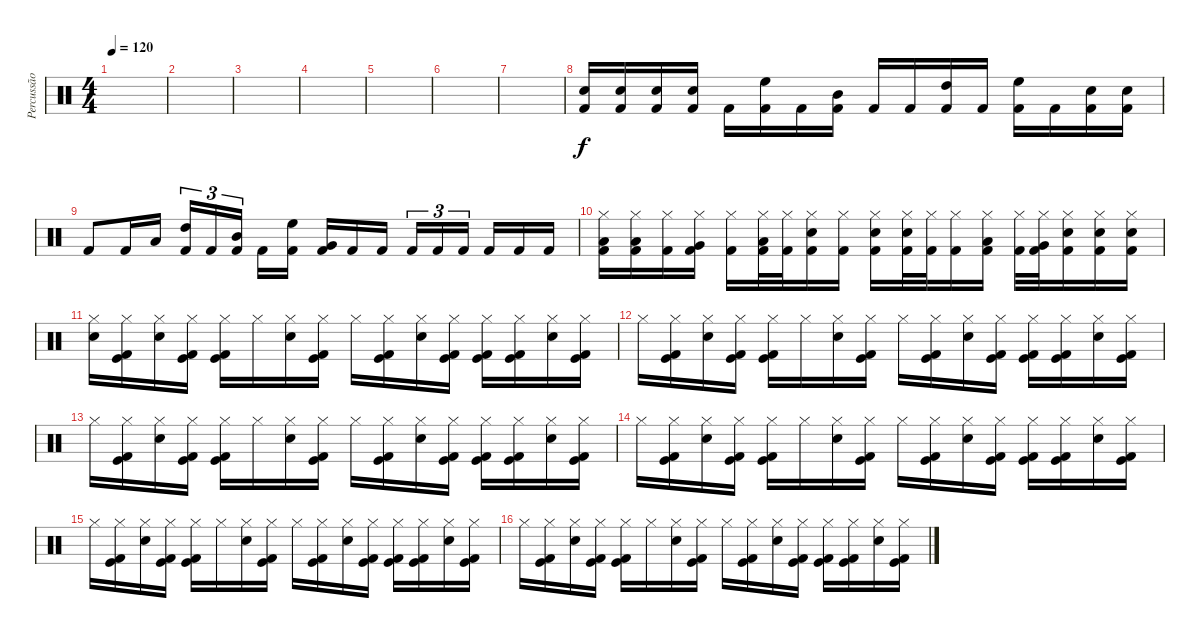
\track ("Percussão" "Percussão") {instrument percussion}
\staff {score}
\articulation defaults
\ts (4 4)
\tempo 120
\clef neutral
\ks c
|
|
|
|
|
|
|
("Electric Snare (hit)" "Kick (hit) 2").16 ("Electric Snare (hit)" "Kick (hit) 2").16 ("Electric Snare (hit)" "Kick (hit) 2").16 ("Electric Snare (hit)" "Kick (hit) 2").16 "Kick (hit) 2".16 ("High Floor Tom (hit)" "Kick (hit) 2").16 "Kick (hit) 2".16 ("Mid Tom (hit)" "Kick (hit) 2").16 "Kick (hit) 2".16 "Kick (hit) 2".16 ("High Tom (hit)" "Kick (hit) 2").16 "Kick (hit) 2".16 ("High Floor Tom (hit)" "Kick (hit) 2").16 "Kick (hit) 2".16 ("Electric Snare (hit)" "Kick (hit) 2").16 ("Electric Snare (hit)" "Kick (hit) 2").16 |
"Kick (hit) 2".8 "Kick (hit) 2".16 "Low Tom (hit)".16 ("High Tom (hit)" "Kick (hit) 2").16{tu (3 2)} "Kick (hit) 2".16{tu (3 2)} ("Mid Tom (hit)" "Kick (hit) 2").16{tu (3 2)} "Kick (hit) 2".16 ("High Floor Tom (hit)" "Kick (hit) 2").16 ("Very Low Tom (hit)" "Kick (hit) 2").16 "Kick (hit) 2".16 "Kick (hit) 2".16 "Kick (hit) 2".16{tu (3 2)} "Kick (hit) 2".16{tu (3 2)} "Kick (hit) 2".16{tu (3 2)} "Kick (hit) 2".16 "Kick (hit) 2".16 "Kick (hit) 2".16 |
("Hi-Hat (closed)" "Low Floor Tom (hit)" "Kick (hit) 2").16 ("Hi-Hat (closed)" "Low Floor Tom (hit)" "Kick (hit) 2").16 ("Hi-Hat (closed)" "Kick (hit) 2").16 ("Very Low Tom (hit)" "Hi-Hat (closed)" "Kick (hit) 2").16 ("Hi-Hat (closed)" "Kick (hit) 2").16 ("Hi-Hat (closed)" "Low Floor Tom (hit)" "Kick (hit) 2").32 ("Hi-Hat (closed)" "Kick (hit) 2").32 ("Hi-Hat (closed)" "Electric Snare (hit)" "Kick (hit) 2").16 ("Hi-Hat (closed)" "Kick (hit) 2").16 ("Hi-Hat (closed)" "Electric Snare (hit)" "Kick (hit) 2").16 ("Hi-Hat (closed)" "Electric Snare (hit)" "Kick (hit) 2").32 ("Hi-Hat (closed)" "Kick (hit) 2").32 ("Hi-Hat (closed)" "Kick (hit) 2").16 ("Hi-Hat (closed)" "Low Tom (hit)" "Kick (hit) 2").16 ("Hi-Hat (closed)" "Kick (hit) 2").32 ("Hi-Hat (closed)" "Very Low Tom (hit)" "Kick (hit) 2").32 ("Hi-Hat (closed)" "Electric Snare (hit)" "Kick (hit) 2").16 ("Hi-Hat (closed)" "Electric Snare (hit)" "Kick (hit) 2").16 ("Hi-Hat (closed)" "Electric Snare (hit)" "Kick (hit) 2").16 |
("Hi-Hat (closed)" "Electric Snare (hit)").16 ("Hi-Hat (closed)" "Kick (hit)" "Kick (hit) 2").16 ("Hi-Hat (closed)" "Electric Snare (hit)").16 ("Hi-Hat (closed)" "Kick (hit)" "Kick (hit) 2").16 ("Hi-Hat (closed)" "Kick (hit)" "Kick (hit) 2").16 "Hi-Hat (closed)".16 ("Hi-Hat (closed)" "Electric Snare (hit)").16 ("Hi-Hat (closed)" "Kick (hit)" "Kick (hit) 2").16 "Hi-Hat (closed)".16 ("Hi-Hat (closed)" "Kick (hit)" "Kick (hit) 2").16 ("Hi-Hat (closed)" "Electric Snare (hit)").16 ("Hi-Hat (closed)" "Kick (hit)" "Kick (hit) 2").16 ("Hi-Hat (closed)" "Kick (hit)" "Kick (hit) 2").16 ("Hi-Hat (closed)" "Kick (hit)" "Kick (hit) 2").16 ("Hi-Hat (closed)" "Electric Snare (hit)").16 ("Hi-Hat (closed)" "Kick (hit)" "Kick (hit) 2").16 |
"Hi-Hat (closed)".16 ("Hi-Hat (closed)" "Kick (hit)" "Kick (hit) 2").16 ("Hi-Hat (closed)" "Electric Snare (hit)").16 ("Hi-Hat (closed)" "Kick (hit)" "Kick (hit) 2").16 ("Hi-Hat (closed)" "Kick (hit)" "Kick (hit) 2").16 "Hi-Hat (closed)".16 ("Hi-Hat (closed)" "Electric Snare (hit)").16 ("Hi-Hat (closed)" "Kick (hit)" "Kick (hit) 2").16 "Hi-Hat (closed)".16 ("Hi-Hat (closed)" "Kick (hit)" "Kick (hit) 2").16 ("Hi-Hat (closed)" "Electric Snare (hit)").16 ("Hi-Hat (closed)" "Kick (hit)" "Kick (hit) 2").16 ("Hi-Hat (closed)" "Kick (hit)" "Kick (hit) 2").16 ("Hi-Hat (closed)" "Kick (hit)" "Kick (hit) 2").16 ("Hi-Hat (closed)" "Electric Snare (hit)").16 ("Hi-Hat (closed)" "Kick (hit)" "Kick (hit) 2").16 |
"Hi-Hat (closed)".16 ("Hi-Hat (closed)" "Kick (hit)" "Kick (hit) 2").16 ("Hi-Hat (closed)" "Electric Snare (hit)").16 ("Hi-Hat (closed)" "Kick (hit)" "Kick (hit) 2").16 ("Hi-Hat (closed)" "Kick (hit)" "Kick (hit) 2").16 "Hi-Hat (closed)".16 ("Hi-Hat (closed)" "Electric Snare (hit)").16 ("Hi-Hat (closed)" "Kick (hit)" "Kick (hit) 2").16 "Hi-Hat (closed)".16 ("Hi-Hat (closed)" "Kick (hit)" "Kick (hit) 2").16 ("Hi-Hat (closed)" "Electric Snare (hit)").16 ("Hi-Hat (closed)" "Kick (hit)" "Kick (hit) 2").16 ("Hi-Hat (closed)" "Kick (hit)" "Kick (hit) 2").16 ("Hi-Hat (closed)" "Kick (hit)" "Kick (hit) 2").16 ("Hi-Hat (closed)" "Electric Snare (hit)").16 ("Hi-Hat (closed)" "Kick (hit)" "Kick (hit) 2").16 |
"Hi-Hat (closed)".16 ("Hi-Hat (closed)" "Kick (hit)" "Kick (hit) 2").16 ("Hi-Hat (closed)" "Electric Snare (hit)").16 ("Hi-Hat (closed)" "Kick (hit)" "Kick (hit) 2").16 ("Hi-Hat (closed)" "Kick (hit)" "Kick (hit) 2").16 "Hi-Hat (closed)".16 ("Hi-Hat (closed)" "Electric Snare (hit)").16 ("Hi-Hat (closed)" "Kick (hit)" "Kick (hit) 2").16 "Hi-Hat (closed)".16 ("Hi-Hat (closed)" "Kick (hit)" "Kick (hit) 2").16 ("Hi-Hat (closed)" "Electric Snare (hit)").16 ("Hi-Hat (closed)" "Kick (hit)" "Kick (hit) 2").16 ("Hi-Hat (closed)" "Kick (hit)" "Kick (hit) 2").16 ("Hi-Hat (closed)" "Kick (hit)" "Kick (hit) 2").16 ("Hi-Hat (closed)" "Electric Snare (hit)").16 ("Hi-Hat (closed)" "Kick (hit)" "Kick (hit) 2").16 |
"Hi-Hat (closed)".16 ("Hi-Hat (closed)" "Kick (hit)" "Kick (hit) 2").16 ("Hi-Hat (closed)" "Electric Snare (hit)").16 ("Hi-Hat (closed)" "Kick (hit)" "Kick (hit) 2").16 ("Hi-Hat (closed)" "Kick (hit)" "Kick (hit) 2").16 "Hi-Hat (closed)".16 ("Hi-Hat (closed)" "Electric Snare (hit)").16 ("Hi-Hat (closed)" "Kick (hit)" "Kick (hit) 2").16 "Hi-Hat (closed)".16 ("Hi-Hat (closed)" "Kick (hit)" "Kick (hit) 2").16 ("Hi-Hat (closed)" "Electric Snare (hit)").16 ("Hi-Hat (closed)" "Kick (hit)" "Kick (hit) 2").16 ("Hi-Hat (closed)" "Kick (hit)" "Kick (hit) 2").16 ("Hi-Hat (closed)" "Kick (hit)" "Kick (hit) 2").16 ("Hi-Hat (closed)" "Electric Snare (hit)").16 ("Hi-Hat (closed)" "Kick (hit)" "Kick (hit) 2").16 |
"Hi-Hat (closed)".16 ("Hi-Hat (closed)" "Kick (hit)" "Kick (hit) 2").16 ("Hi-Hat (closed)" "Electric Snare (hit)").16 ("Hi-Hat (closed)" "Kick (hit)" "Kick (hit) 2").16 ("Hi-Hat (closed)" "Kick (hit)" "Kick (hit) 2").16 "Hi-Hat (closed)".16 ("Hi-Hat (closed)" "Electric Snare (hit)").16 ("Hi-Hat (closed)" "Kick (hit)" "Kick (hit) 2").16 "Hi-Hat (closed)".16 ("Hi-Hat (closed)" "Kick (hit)" "Kick (hit) 2").16 ("Hi-Hat (closed)" "Electric Snare (hit)").16 ("Hi-Hat (closed)" "Kick (hit)" "Kick (hit) 2").16 ("Hi-Hat (closed)" "Kick (hit)" "Kick (hit) 2").16 ("Hi-Hat (closed)" "Kick (hit)" "Kick (hit) 2").16 ("Hi-Hat (closed)" "Electric Snare (hit)").16 ("Hi-Hat (closed)" "Kick (hit)" "Kick (hit) 2").16
